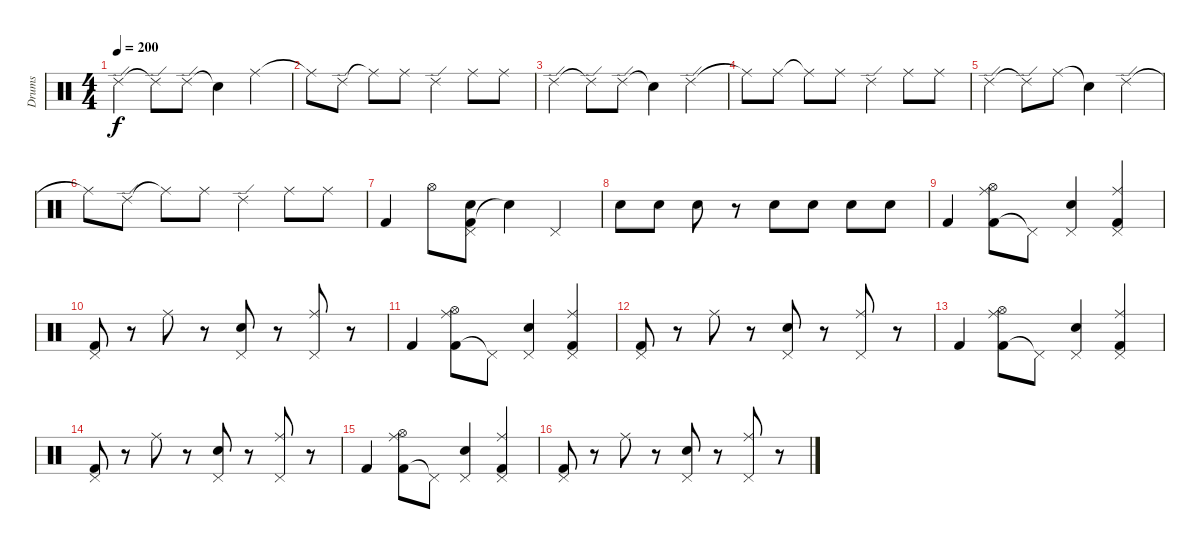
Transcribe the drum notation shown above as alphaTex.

\track ("Drums" "Drums") {instrument percussion}
\staff {score}
\articulation defaults
\ts (4 4)
\tempo 200
\clef neutral
\ks c "Ride (edge) 2".4{dy f} "Ride (edge) 2"{t}.8 "Ride (edge) 2".8 "Snare (hit)"{t}.4 "Ride (middle)".4
|
"Ride (middle)"{t}.8 "Ride (edge) 2".8 "Ride (middle)"{t}.8 "Ride (middle)".8 "Ride (edge) 2".4 "Ride (middle)".8 "Ride (middle)".8 |
"Ride (edge) 2".4 "Ride (edge) 2"{t}.8 "Ride (edge) 2".8 "Snare (hit)"{t}.4 "Ride (edge) 2".4 |
"Ride (middle)"{t}.8 "Ride (middle)".8 "Ride (middle)"{t}.8 "Ride (middle)".8 "Ride (edge) 2".4 "Ride (middle)".8 "Ride (middle)".8 |
"Ride (edge) 2".4 "Ride (edge) 2"{t}.8 "Ride (middle)".8 "Snare (hit)"{t}.4 "Ride (edge) 2".4 |
"Ride (middle)"{t}.8 "Ride (edge) 2".8 "Ride (middle)"{t}.8 "Ride (middle)".8 "Ride (edge) 2".4 "Ride (middle)".8 "Ride (middle)".8 |
"Kick (hit) 2".4 "Hi-Hat (open)".8 ("Kick (hit) 2" "Electric Snare (hit)" "Pedal Hi-Hat (hit)").8 "Snare (hit)"{t}.4 "Pedal Hi-Hat (hit)".4 |
"Electric Snare (hit)".8 "Electric Snare (hit)".8 "Electric Snare (hit)".8 r.8 "Electric Snare (hit)".8 "Electric Snare (hit)".8 "Electric Snare (hit)".8 "Electric Snare (hit)".8 |
"Kick (hit) 2".4 ("Kick (hit) 2" "Hi-Hat (open)" "Ride (middle)").8 "Pedal Hi-Hat (hit)"{t}.8 ("Electric Snare (hit)" "Pedal Hi-Hat (hit)").4 ("Kick (hit) 2" "Pedal Hi-Hat (hit)" "Ride (middle)").4 |
("Kick (hit) 2" "Pedal Hi-Hat (hit)").8 r.8 "Ride (middle)".8 r.8 ("Electric Snare (hit)" "Pedal Hi-Hat (hit)").8 r.8 ("Ride (middle)" "Pedal Hi-Hat (hit)").8 r.8 |
"Kick (hit) 2".4 ("Kick (hit) 2" "Hi-Hat (open)" "Ride (middle)").8 "Pedal Hi-Hat (hit)"{t}.8 ("Electric Snare (hit)" "Pedal Hi-Hat (hit)").4 ("Kick (hit) 2" "Pedal Hi-Hat (hit)" "Ride (middle)").4 |
("Kick (hit) 2" "Pedal Hi-Hat (hit)").8 r.8 "Ride (middle)".8 r.8 ("Electric Snare (hit)" "Pedal Hi-Hat (hit)").8 r.8 ("Ride (middle)" "Pedal Hi-Hat (hit)").8 r.8 |
"Kick (hit) 2".4 ("Kick (hit) 2" "Hi-Hat (open)" "Ride (middle)").8 "Pedal Hi-Hat (hit)"{t}.8 ("Electric Snare (hit)" "Pedal Hi-Hat (hit)").4 ("Kick (hit) 2" "Pedal Hi-Hat (hit)" "Ride (middle)").4 |
("Kick (hit) 2" "Pedal Hi-Hat (hit)").8 r.8 "Ride (middle)".8 r.8 ("Electric Snare (hit)" "Pedal Hi-Hat (hit)").8 r.8 ("Ride (middle)" "Pedal Hi-Hat (hit)").8 r.8 |
"Kick (hit) 2".4 ("Kick (hit) 2" "Hi-Hat (open)" "Ride (middle)").8 "Pedal Hi-Hat (hit)"{t}.8 ("Electric Snare (hit)" "Pedal Hi-Hat (hit)").4 ("Kick (hit) 2" "Pedal Hi-Hat (hit)" "Ride (middle)").4 |
("Kick (hit) 2" "Pedal Hi-Hat (hit)").8 r.8 "Ride (middle)".8 r.8 ("Electric Snare (hit)" "Pedal Hi-Hat (hit)").8 r.8 ("Ride (middle)" "Pedal Hi-Hat (hit)").8 r.8
